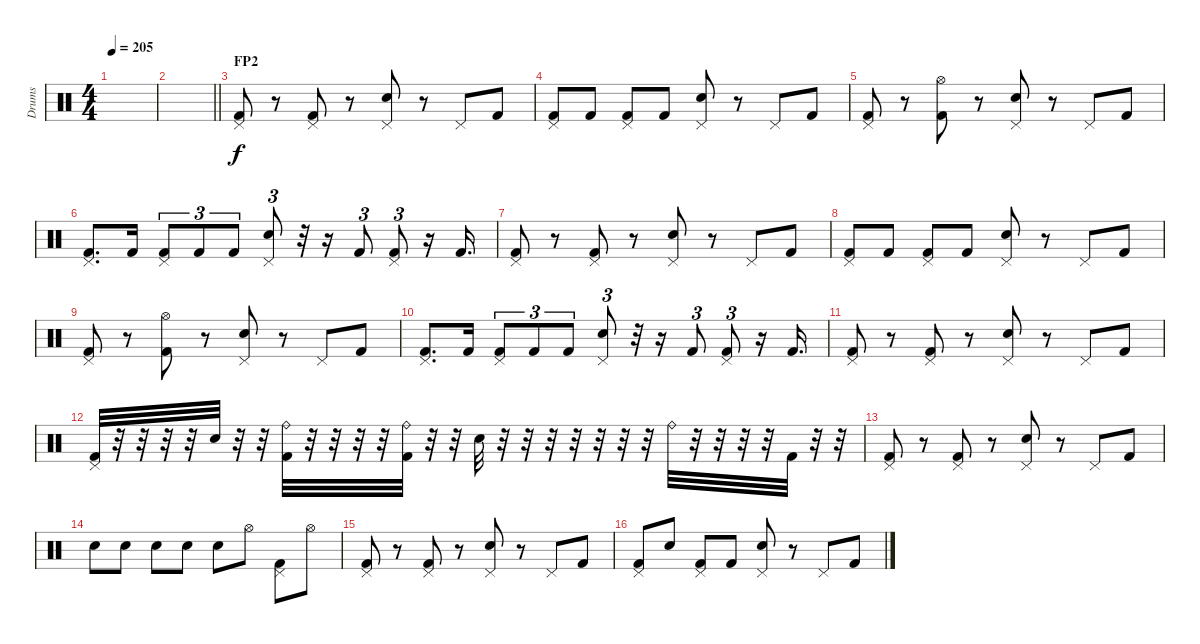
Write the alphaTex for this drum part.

\track ("Drums" "Drums") {instrument percussion}
\staff {score}
\articulation defaults
\ts (4 4)
\tempo 205
\clef neutral
\ks c
|
\barLineRight lightlight
|
\section ("" "FP2")
("Kick (hit) 2" "Pedal Hi-Hat (hit)").8 r.8 ("Kick (hit) 2" "Pedal Hi-Hat (hit)").8 r.8 ("Pedal Hi-Hat (hit)" "Snare (hit) 2").8 r.8 "Pedal Hi-Hat (hit)".8 "Kick (hit) 2".8 |
("Kick (hit) 2" "Pedal Hi-Hat (hit)").8 "Kick (hit) 2".8 ("Kick (hit) 2" "Pedal Hi-Hat (hit)").8 "Kick (hit) 2".8 ("Pedal Hi-Hat (hit)" "Snare (hit) 2").8 r.8 "Pedal Hi-Hat (hit)".8 "Kick (hit) 2".8 |
("Kick (hit) 2" "Pedal Hi-Hat (hit)").8 r.8 ("Kick (hit) 2" "Hi-Hat (open)").8 r.8 ("Pedal Hi-Hat (hit)" "Snare (hit) 2").8 r.8 "Pedal Hi-Hat (hit)".8 "Kick (hit) 2".8 |
("Kick (hit) 2" "Pedal Hi-Hat (hit)").8{d} "Kick (hit) 2".16 ("Kick (hit) 2" "Pedal Hi-Hat (hit)").8{tu (3 2)} "Kick (hit) 2".8{tu (3 2)} "Kick (hit) 2".8{tu (3 2)} ("Pedal Hi-Hat (hit)" "Snare (hit) 2").8{tu (3 2)} r.32 r.16 "Kick (hit) 2".8{tu (3 2)} ("Kick (hit) 2" "Pedal Hi-Hat (hit)").8{tu (3 2)} r.16 "Kick (hit) 2".16{d} |
("Kick (hit) 2" "Pedal Hi-Hat (hit)").8 r.8 ("Kick (hit) 2" "Pedal Hi-Hat (hit)").8 r.8 ("Pedal Hi-Hat (hit)" "Snare (hit) 2").8 r.8 "Pedal Hi-Hat (hit)".8 "Kick (hit) 2".8 |
("Kick (hit) 2" "Pedal Hi-Hat (hit)").8 "Kick (hit) 2".8 ("Kick (hit) 2" "Pedal Hi-Hat (hit)").8 "Kick (hit) 2".8 ("Pedal Hi-Hat (hit)" "Snare (hit) 2").8 r.8 "Pedal Hi-Hat (hit)".8 "Kick (hit) 2".8 |
("Kick (hit) 2" "Pedal Hi-Hat (hit)").8 r.8 ("Kick (hit) 2" "Hi-Hat (open)").8 r.8 ("Pedal Hi-Hat (hit)" "Snare (hit) 2").8 r.8 "Pedal Hi-Hat (hit)".8 "Kick (hit) 2".8 |
("Kick (hit) 2" "Pedal Hi-Hat (hit)").8{d} "Kick (hit) 2".16 ("Kick (hit) 2" "Pedal Hi-Hat (hit)").8{tu (3 2)} "Kick (hit) 2".8{tu (3 2)} "Kick (hit) 2".8{tu (3 2)} ("Pedal Hi-Hat (hit)" "Snare (hit) 2").8{tu (3 2)} r.32 r.16 "Kick (hit) 2".8{tu (3 2)} ("Kick (hit) 2" "Pedal Hi-Hat (hit)").8{tu (3 2)} r.16 "Kick (hit) 2".16{d} |
("Kick (hit) 2" "Pedal Hi-Hat (hit)").8 r.8 ("Kick (hit) 2" "Pedal Hi-Hat (hit)").8 r.8 ("Pedal Hi-Hat (hit)" "Snare (hit) 2").8 r.8 "Pedal Hi-Hat (hit)".8 "Kick (hit) 2".8 |
("Kick (hit) 2" "Pedal Hi-Hat (hit)").32 r.32 r.32 r.32 r.32 "Snare (hit) 2".32 r.32 r.32 ("Kick (hit) 2" "Ride (bell)").32 r.32 r.32 r.32 r.32 ("Kick (hit) 2" "Ride (bell)").32 r.32 r.32 "Snare (hit) 2".32 r.32 r.32 r.32 r.32 r.32 r.32 r.32 "Ride (bell)".32 r.32 r.32 r.32 r.32 "Kick (hit) 2".32 r.32 r.32 |
("Kick (hit) 2" "Pedal Hi-Hat (hit)").8 r.8 ("Kick (hit) 2" "Pedal Hi-Hat (hit)").8 r.8 ("Pedal Hi-Hat (hit)" "Snare (hit) 2").8 r.8 "Pedal Hi-Hat (hit)".8 "Kick (hit) 2".8 |
"Snare (hit) 2".8 "Snare (hit) 2".8 "Snare (hit) 2".8 "Snare (hit) 2".8 "Snare (hit) 2".8 "Hi-Hat (open)".8 ("Kick (hit) 2" "Pedal Hi-Hat (hit)").8 "Hi-Hat (open)".8 |
("Kick (hit) 2" "Pedal Hi-Hat (hit)").8 r.8 ("Kick (hit) 2" "Pedal Hi-Hat (hit)").8 r.8 ("Pedal Hi-Hat (hit)" "Snare (hit) 2").8 r.8 "Pedal Hi-Hat (hit)".8 "Kick (hit) 2".8 |
("Kick (hit) 2" "Pedal Hi-Hat (hit)").8 "Snare (hit) 2".8 ("Kick (hit) 2" "Pedal Hi-Hat (hit)").8 "Kick (hit) 2".8 ("Pedal Hi-Hat (hit)" "Snare (hit) 2").8 r.8 "Pedal Hi-Hat (hit)".8 "Kick (hit) 2".8
